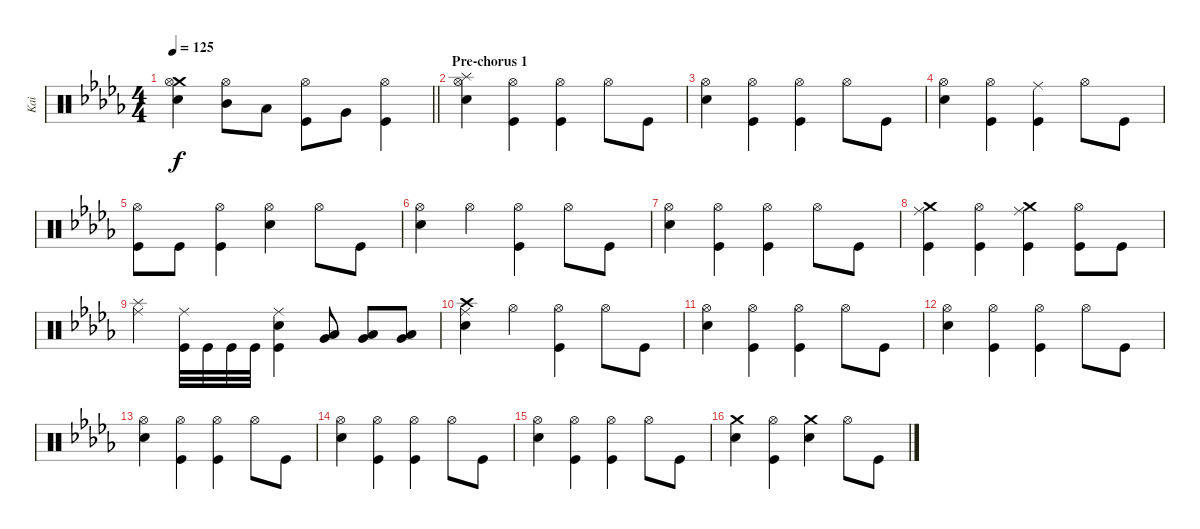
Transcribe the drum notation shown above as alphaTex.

\track ("Kai" "Kai") {instrument percussion}
\staff {score}
\articulation defaults
\ts (4 4)
\tempo 125
\clef neutral
\barLineRight lightlight
\ks bbminor
("Crash medium (hit)" "Snare (hit) 2" "Hi-Hat (open)").4{dy f} ("Mid Tom (hit)" "Hi-Hat (open)").8 "Low Tom (hit)".8 ("Hi-Hat (open)" "Kick (hit)").8 "Very Low Tom (hit)".8 ("Hi-Hat (open)" "Kick (hit)").4 |
\section ("" "Pre-chorus 1")
("Snare (hit) 2" "Hi-Hat (open)" "Splash (hit)").4 ("Kick (hit)" "Hi-Hat (open)").4 ("Hi-Hat (open)" "Kick (hit)").4 "Hi-Hat (open)".8 "Kick (hit)".8 |
("Snare (hit) 2" "Hi-Hat (open)").4 ("Kick (hit)" "Hi-Hat (open)").4 ("Hi-Hat (open)" "Kick (hit)").4 "Hi-Hat (open)".8 "Kick (hit)".8 |
("Snare (hit) 2" "Hi-Hat (open)").4 ("Kick (hit)" "Hi-Hat (open)").4 ("Ride (middle)" "Kick (hit)").4 "Hi-Hat (open)".8 "Kick (hit)".8 |
("Kick (hit)" "Hi-Hat (open)").8 "Kick (hit)".8 ("Kick (hit)" "Hi-Hat (open)").4 ("Snare (hit) 2" "Hi-Hat (open)").4 "Hi-Hat (open)".8 "Kick (hit)".8 |
("Snare (hit) 2" "Hi-Hat (open)").4 "Hi-Hat (open)".4 ("Hi-Hat (open)" "Kick (hit)").4 "Hi-Hat (open)".8 "Kick (hit)".8 |
("Snare (hit) 2" "Hi-Hat (open)").4 ("Kick (hit)" "Hi-Hat (open)").4 ("Hi-Hat (open)" "Kick (hit)").4 "Hi-Hat (open)".8 "Kick (hit)".8 |
("Crash medium (hit)" "Ride (middle)" "Kick (hit)").4 ("Kick (hit)" "Hi-Hat (open)").4 ("Ride (middle)" "Crash medium (hit)" "Kick (hit)").4 ("Hi-Hat (open)" "Kick (hit)").8 "Kick (hit)".8 |
("Splash (hit)" "Ride (middle)").4 ("Kick (hit)" "Ride (middle)").32 "Kick (hit)".32 "Kick (hit)".32 "Kick (hit)".32 ("Snare (hit) 2" "Ride (middle)" "Kick (hit)").4 ("Very Low Tom (hit)" "Low Tom (hit)").8 ("Low Tom (hit)" "Very Low Tom (hit)").8 ("Low Tom (hit)" "Very Low Tom (hit)").8 |
("Crash high (hit)" "Snare (hit) 2" "Ride (middle)").4 "Hi-Hat (open)".4 ("Hi-Hat (open)" "Kick (hit)").4 "Hi-Hat (open)".8 "Kick (hit)".8 |
("Snare (hit) 2" "Hi-Hat (open)").4 ("Kick (hit)" "Hi-Hat (open)").4 ("Hi-Hat (open)" "Kick (hit)").4 "Hi-Hat (open)".8 "Kick (hit)".8 |
("Snare (hit) 2" "Hi-Hat (open)").4 ("Kick (hit)" "Hi-Hat (open)").4 ("Hi-Hat (open)" "Kick (hit)").4 "Hi-Hat (open)".8 "Kick (hit)".8 |
("Snare (hit) 2" "Hi-Hat (open)").4 ("Kick (hit)" "Hi-Hat (open)").4 ("Hi-Hat (open)" "Kick (hit)").4 "Hi-Hat (open)".8 "Kick (hit)".8 |
("Snare (hit) 2" "Hi-Hat (open)").4 ("Kick (hit)" "Hi-Hat (open)").4 ("Hi-Hat (open)" "Kick (hit)").4 "Hi-Hat (open)".8 "Kick (hit)".8 |
("Snare (hit) 2" "Hi-Hat (open)").4 ("Kick (hit)" "Hi-Hat (open)").4 ("Hi-Hat (open)" "Kick (hit)").4 "Hi-Hat (open)".8 "Kick (hit)".8 |
("Snare (hit) 2" "Crash medium (hit)").4 ("Kick (hit)" "Hi-Hat (open)").4 ("Snare (hit) 2" "Crash medium (hit)").4 "Hi-Hat (open)".8 "Kick (hit)".8
